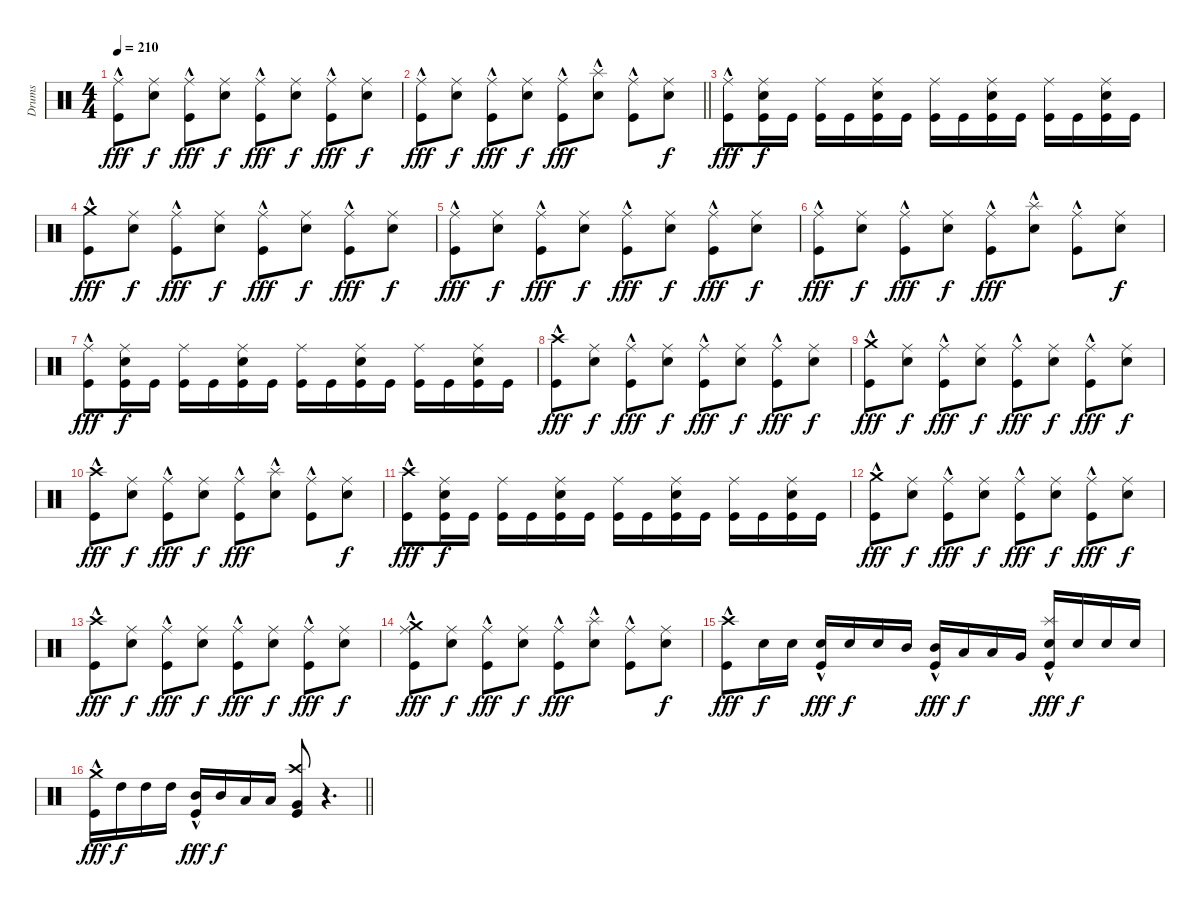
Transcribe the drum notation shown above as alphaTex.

\track ("Drums" "Drums") {instrument percussion}
\staff {score}
\articulation defaults
\ts (4 4)
\tempo 210
\clef neutral
\ks c
("Ride (middle)" "Kick (hit)"{hac}).8{dy fff} ("Ride (middle)" "Electric Snare (hit)").8{dy f} ("Ride (middle)" "Kick (hit)"{hac}).8{dy fff} ("Ride (middle)" "Electric Snare (hit)").8{dy f} ("Ride (middle)" "Kick (hit)"{hac}).8{dy fff} ("Ride (middle)" "Electric Snare (hit)").8{dy f} ("Ride (middle)" "Kick (hit)"{hac}).8{dy fff} ("Ride (middle)" "Electric Snare (hit)").8{dy f} |
\barLineRight lightlight
("Ride (middle)" "Kick (hit)"{hac}).8{dy fff} ("Ride (middle)" "Electric Snare (hit)").8{dy f} ("Ride (middle)" "Kick (hit)"{hac}).8{dy fff} ("Ride (middle)" "Electric Snare (hit)").8{dy f} ("Ride (middle)" "Kick (hit)"{hac}).8{dy fff} ("Splash (hit)" "Electric Snare (hit)"{hac}).8 ("Ride (middle)" "Kick (hit)"{hac}).8 ("Ride (middle)" "Electric Snare (hit)").8{dy f} |
("Ride (middle)" "Kick (hit)"{hac}).8{dy fff} ("Ride (middle)" "Electric Snare (hit)" "Kick (hit)").16{dy f} "Kick (hit)".16 ("Ride (middle)" "Kick (hit)").16 "Kick (hit)".16 ("Ride (middle)" "Electric Snare (hit)" "Kick (hit)").16 "Kick (hit)".16 ("Ride (middle)" "Kick (hit)").16 "Kick (hit)".16 ("Ride (middle)" "Electric Snare (hit)" "Kick (hit)").16 "Kick (hit)".16 ("Ride (middle)" "Kick (hit)").16 "Kick (hit)".16 ("Ride (middle)" "Electric Snare (hit)" "Kick (hit)").16 "Kick (hit)".16 |
("Crash medium (hit)" "Kick (hit)"{hac}).8{dy fff} ("Ride (middle)" "Electric Snare (hit)").8{dy f} ("Ride (middle)" "Kick (hit)"{hac}).8{dy fff} ("Ride (middle)" "Electric Snare (hit)").8{dy f} ("Ride (middle)" "Kick (hit)"{hac}).8{dy fff} ("Ride (middle)" "Electric Snare (hit)").8{dy f} ("Ride (middle)" "Kick (hit)"{hac}).8{dy fff} ("Ride (middle)" "Electric Snare (hit)").8{dy f} |
("Ride (middle)" "Kick (hit)"{hac}).8{dy fff} ("Ride (middle)" "Electric Snare (hit)").8{dy f} ("Ride (middle)" "Kick (hit)"{hac}).8{dy fff} ("Ride (middle)" "Electric Snare (hit)").8{dy f} ("Ride (middle)" "Kick (hit)"{hac}).8{dy fff} ("Ride (middle)" "Electric Snare (hit)").8{dy f} ("Ride (middle)" "Kick (hit)"{hac}).8{dy fff} ("Ride (middle)" "Electric Snare (hit)").8{dy f} |
("Ride (middle)" "Kick (hit)"{hac}).8{dy fff} ("Ride (middle)" "Electric Snare (hit)").8{dy f} ("Ride (middle)" "Kick (hit)"{hac}).8{dy fff} ("Ride (middle)" "Electric Snare (hit)").8{dy f} ("Ride (middle)" "Kick (hit)"{hac}).8{dy fff} ("Splash (hit)" "Electric Snare (hit)"{hac}).8 ("Ride (middle)" "Kick (hit)"{hac}).8 ("Ride (middle)" "Electric Snare (hit)").8{dy f} |
("Ride (middle)" "Kick (hit)"{hac}).8{dy fff} ("Ride (middle)" "Electric Snare (hit)" "Kick (hit)").16{dy f} "Kick (hit)".16 ("Ride (middle)" "Kick (hit)").16 "Kick (hit)".16 ("Ride (middle)" "Electric Snare (hit)" "Kick (hit)").16 "Kick (hit)".16 ("Ride (middle)" "Kick (hit)").16 "Kick (hit)".16 ("Ride (middle)" "Electric Snare (hit)" "Kick (hit)").16 "Kick (hit)".16 ("Ride (middle)" "Kick (hit)").16 "Kick (hit)".16 ("Ride (middle)" "Electric Snare (hit)" "Kick (hit)").16 "Kick (hit)".16 |
("Crash high (hit)" "Kick (hit)"{hac}).8{dy fff} ("Ride (middle)" "Electric Snare (hit)").8{dy f} ("Ride (middle)" "Kick (hit)"{hac}).8{dy fff} ("Ride (middle)" "Electric Snare (hit)").8{dy f} ("Ride (middle)" "Kick (hit)"{hac}).8{dy fff} ("Ride (middle)" "Electric Snare (hit)").8{dy f} ("Ride (middle)" "Kick (hit)"{hac}).8{dy fff} ("Ride (middle)" "Electric Snare (hit)").8{dy f} |
("Crash medium (hit)" "Kick (hit)"{hac}).8{dy fff} ("Ride (middle)" "Electric Snare (hit)").8{dy f} ("Ride (middle)" "Kick (hit)"{hac}).8{dy fff} ("Ride (middle)" "Electric Snare (hit)").8{dy f} ("Ride (middle)" "Kick (hit)"{hac}).8{dy fff} ("Ride (middle)" "Electric Snare (hit)").8{dy f} ("Ride (middle)" "Kick (hit)"{hac}).8{dy fff} ("Ride (middle)" "Electric Snare (hit)").8{dy f} |
("Crash high (hit)" "Kick (hit)"{hac}).8{dy fff} ("Ride (middle)" "Electric Snare (hit)").8{dy f} ("Ride (middle)" "Kick (hit)"{hac}).8{dy fff} ("Ride (middle)" "Electric Snare (hit)").8{dy f} ("Ride (middle)" "Kick (hit)"{hac}).8{dy fff} ("Splash (hit)" "Electric Snare (hit)"{hac}).8 ("Ride (middle)" "Kick (hit)"{hac}).8 ("Ride (middle)" "Electric Snare (hit)").8{dy f} |
("Crash high (hit)" "Kick (hit)"{hac}).8{dy fff} ("Ride (middle)" "Electric Snare (hit)" "Kick (hit)").16{dy f} "Kick (hit)".16 ("Ride (middle)" "Kick (hit)").16 "Kick (hit)".16 ("Ride (middle)" "Electric Snare (hit)" "Kick (hit)").16 "Kick (hit)".16 ("Ride (middle)" "Kick (hit)").16 "Kick (hit)".16 ("Ride (middle)" "Electric Snare (hit)" "Kick (hit)").16 "Kick (hit)".16 ("Ride (middle)" "Kick (hit)").16 "Kick (hit)".16 ("Ride (middle)" "Electric Snare (hit)" "Kick (hit)").16 "Kick (hit)".16 |
("Crash medium (hit)" "Kick (hit)"{hac}).8{dy fff} ("Ride (middle)" "Electric Snare (hit)").8{dy f} ("Ride (middle)" "Kick (hit)"{hac}).8{dy fff} ("Ride (middle)" "Electric Snare (hit)").8{dy f} ("Ride (middle)" "Kick (hit)"{hac}).8{dy fff} ("Ride (middle)" "Electric Snare (hit)").8{dy f} ("Ride (middle)" "Kick (hit)"{hac}).8{dy fff} ("Ride (middle)" "Electric Snare (hit)").8{dy f} |
("Crash high (hit)" "Kick (hit)"{hac}).8{dy fff} ("Ride (middle)" "Electric Snare (hit)").8{dy f} ("Ride (middle)" "Kick (hit)"{hac}).8{dy fff} ("Ride (middle)" "Electric Snare (hit)").8{dy f} ("Ride (middle)" "Kick (hit)"{hac}).8{dy fff} ("Ride (middle)" "Electric Snare (hit)").8{dy f} ("Ride (middle)" "Kick (hit)"{hac}).8{dy fff} ("Ride (middle)" "Electric Snare (hit)").8{dy f} |
("Crash medium (hit)" "Ride (middle)" "Kick (hit)"{hac}).8{dy fff} ("Ride (middle)" "Electric Snare (hit)").8{dy f} ("Ride (middle)" "Kick (hit)"{hac}).8{dy fff} ("Ride (middle)" "Electric Snare (hit)").8{dy f} ("Ride (middle)" "Kick (hit)"{hac}).8{dy fff} ("Splash (hit)" "Electric Snare (hit)"{hac}).8 ("Ride (middle)" "Kick (hit)"{hac}).8 ("Ride (middle)" "Electric Snare (hit)").8{dy f} |
("Crash high (hit)" "Kick (hit)"{hac}).8{dy fff} "Snare (hit) 2".16{dy f} "Snare (hit) 2".16 ("Snare (hit) 2" "Kick (hit)"{hac}).16{dy fff} "Snare (hit) 2".16{dy f} "Snare (hit) 2".16 "Mid Tom (hit)".16 ("Mid Tom (hit)" "Kick (hit)"{hac}).16{dy fff} "Low Tom (hit)".16{dy f} "Low Tom (hit)".16 "Very Low Tom (hit)".16 ("Splash (hit)" "Snare (hit) 2" "Kick (hit)"{hac}).16{dy fff} "Snare (hit) 2".16{dy f} "Snare (hit) 2".16 "Snare (hit) 2".16 |
\barLineRight lightlight
("Crash medium (hit)" "Kick (hit)"{hac}).16{dy fff} "High Tom (hit)".16{dy f} "High Tom (hit)".16 "High Tom (hit)".16 ("Mid Tom (hit)" "Kick (hit)"{hac}).16{dy fff} "Mid Tom (hit)".16{dy f} "Low Tom (hit)".16 "Low Tom (hit)".16 ("Crash high (hit)" "Very Low Tom (hit)" "Kick (hit)").8 r.4{d}
